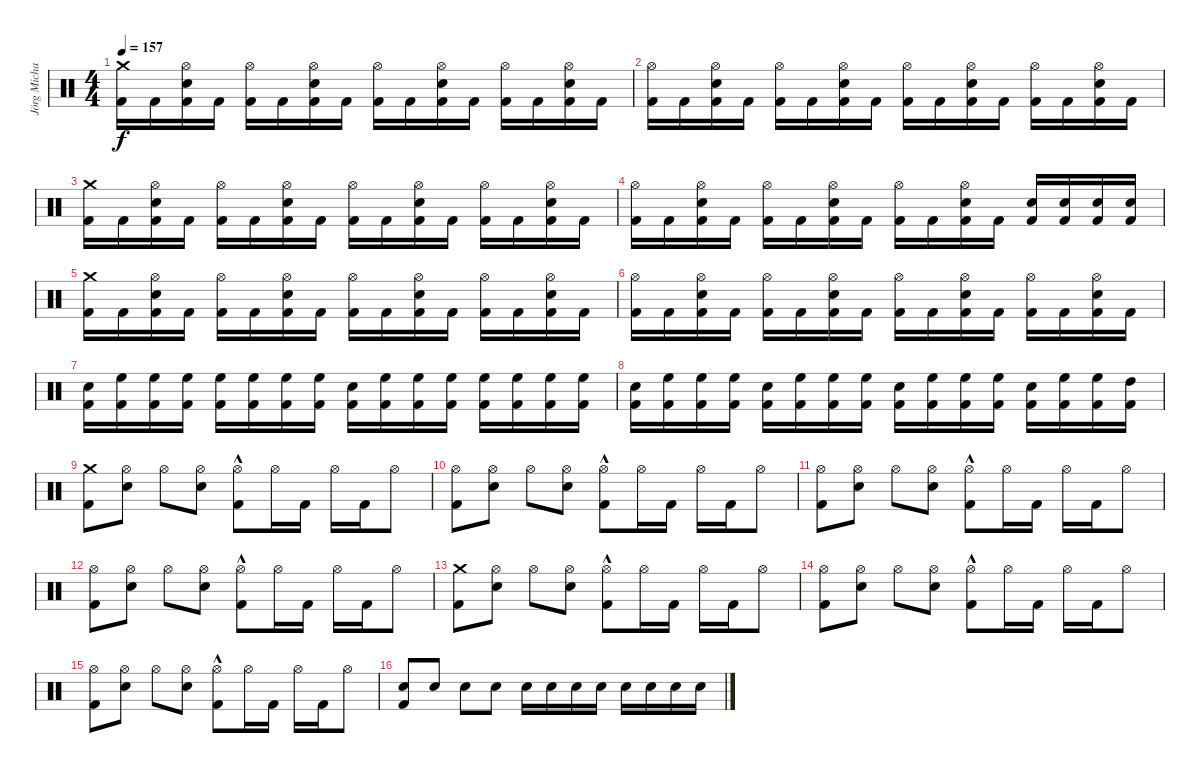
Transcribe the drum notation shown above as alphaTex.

\track ("Jörg Michael" "Jörg Micha") {instrument percussion}
\staff {score}
\articulation defaults
\ts (4 4)
\tempo 157
\clef neutral
\ks c
("Crash medium (hit)" "Kick (hit) 2").16{dy f} "Kick (hit) 2".16 ("Snare (hit) 2" "Hi-Hat (open)" "Kick (hit) 2").16 "Kick (hit) 2".16 ("Hi-Hat (open)" "Kick (hit) 2").16 "Kick (hit) 2".16 ("Snare (hit) 2" "Hi-Hat (open)" "Kick (hit) 2").16 "Kick (hit) 2".16 ("Hi-Hat (open)" "Kick (hit) 2").16 "Kick (hit) 2".16 ("Snare (hit) 2" "Hi-Hat (open)" "Kick (hit) 2").16 "Kick (hit) 2".16 ("Hi-Hat (open)" "Kick (hit) 2").16 "Kick (hit) 2".16 ("Snare (hit) 2" "Hi-Hat (open)" "Kick (hit) 2").16 "Kick (hit) 2".16 |
("Hi-Hat (open)" "Kick (hit) 2").16 "Kick (hit) 2".16 ("Snare (hit) 2" "Hi-Hat (open)" "Kick (hit) 2").16 "Kick (hit) 2".16 ("Hi-Hat (open)" "Kick (hit) 2").16 "Kick (hit) 2".16 ("Snare (hit) 2" "Hi-Hat (open)" "Kick (hit) 2").16 "Kick (hit) 2".16 ("Hi-Hat (open)" "Kick (hit) 2").16 "Kick (hit) 2".16 ("Snare (hit) 2" "Hi-Hat (open)" "Kick (hit) 2").16 "Kick (hit) 2".16 ("Hi-Hat (open)" "Kick (hit) 2").16 "Kick (hit) 2".16 ("Snare (hit) 2" "Hi-Hat (open)" "Kick (hit) 2").16 "Kick (hit) 2".16 |
("Crash medium (hit)" "Kick (hit) 2").16 "Kick (hit) 2".16 ("Snare (hit) 2" "Hi-Hat (open)" "Kick (hit) 2").16 "Kick (hit) 2".16 ("Hi-Hat (open)" "Kick (hit) 2").16 "Kick (hit) 2".16 ("Snare (hit) 2" "Hi-Hat (open)" "Kick (hit) 2").16 "Kick (hit) 2".16 ("Hi-Hat (open)" "Kick (hit) 2").16 "Kick (hit) 2".16 ("Snare (hit) 2" "Hi-Hat (open)" "Kick (hit) 2").16 "Kick (hit) 2".16 ("Hi-Hat (open)" "Kick (hit) 2").16 "Kick (hit) 2".16 ("Snare (hit) 2" "Hi-Hat (open)" "Kick (hit) 2").16 "Kick (hit) 2".16 |
("Hi-Hat (open)" "Kick (hit) 2").16 "Kick (hit) 2".16 ("Snare (hit) 2" "Hi-Hat (open)" "Kick (hit) 2").16 "Kick (hit) 2".16 ("Hi-Hat (open)" "Kick (hit) 2").16 "Kick (hit) 2".16 ("Snare (hit) 2" "Hi-Hat (open)" "Kick (hit) 2").16 "Kick (hit) 2".16 ("Hi-Hat (open)" "Kick (hit) 2").16 "Kick (hit) 2".16 ("Snare (hit) 2" "Hi-Hat (open)" "Kick (hit) 2").16 "Kick (hit) 2".16 ("Snare (hit) 2" "Kick (hit) 2").16 ("Snare (hit) 2" "Kick (hit) 2").16 ("Snare (hit) 2" "Kick (hit) 2").16 ("Snare (hit) 2" "Kick (hit) 2").16 |
("Crash medium (hit)" "Kick (hit) 2").16 "Kick (hit) 2".16 ("Snare (hit) 2" "Hi-Hat (open)" "Kick (hit) 2").16 "Kick (hit) 2".16 ("Hi-Hat (open)" "Kick (hit) 2").16 "Kick (hit) 2".16 ("Snare (hit) 2" "Hi-Hat (open)" "Kick (hit) 2").16 "Kick (hit) 2".16 ("Hi-Hat (open)" "Kick (hit) 2").16 "Kick (hit) 2".16 ("Snare (hit) 2" "Hi-Hat (open)" "Kick (hit) 2").16 "Kick (hit) 2".16 ("Hi-Hat (open)" "Kick (hit) 2").16 "Kick (hit) 2".16 ("Snare (hit) 2" "Hi-Hat (open)" "Kick (hit) 2").16 "Kick (hit) 2".16 |
("Hi-Hat (open)" "Kick (hit) 2").16 "Kick (hit) 2".16 ("Snare (hit) 2" "Hi-Hat (open)" "Kick (hit) 2").16 "Kick (hit) 2".16 ("Hi-Hat (open)" "Kick (hit) 2").16 "Kick (hit) 2".16 ("Snare (hit) 2" "Hi-Hat (open)" "Kick (hit) 2").16 "Kick (hit) 2".16 ("Hi-Hat (open)" "Kick (hit) 2").16 "Kick (hit) 2".16 ("Snare (hit) 2" "Hi-Hat (open)" "Kick (hit) 2").16 "Kick (hit) 2".16 ("Hi-Hat (open)" "Kick (hit) 2").16 "Kick (hit) 2".16 ("Snare (hit) 2" "Hi-Hat (open)" "Kick (hit) 2").16 "Kick (hit) 2".16 |
("Snare (hit) 2" "Kick (hit) 2").16 ("High Floor Tom (hit)" "Kick (hit) 2").16 ("High Floor Tom (hit)" "Kick (hit) 2").16 ("High Floor Tom (hit)" "Kick (hit) 2").16 ("High Floor Tom (hit)" "Kick (hit) 2").16 ("High Floor Tom (hit)" "Kick (hit) 2").16 ("High Floor Tom (hit)" "Kick (hit) 2").16 ("High Floor Tom (hit)" "Kick (hit) 2").16 ("Snare (hit) 2" "Kick (hit) 2").16 ("High Floor Tom (hit)" "Kick (hit) 2").16 ("High Floor Tom (hit)" "Kick (hit) 2").16 ("High Floor Tom (hit)" "Kick (hit) 2").16 ("High Floor Tom (hit)" "Kick (hit) 2").16 ("High Floor Tom (hit)" "Kick (hit) 2").16 ("High Floor Tom (hit)" "Kick (hit) 2").16 ("High Floor Tom (hit)" "Kick (hit) 2").16 |
("Snare (hit) 2" "Kick (hit) 2").16 ("High Floor Tom (hit)" "Kick (hit) 2").16 ("High Floor Tom (hit)" "Kick (hit) 2").16 ("High Floor Tom (hit)" "Kick (hit) 2").16 ("Snare (hit) 2" "Kick (hit) 2").16 ("High Floor Tom (hit)" "Kick (hit) 2").16 ("High Floor Tom (hit)" "Kick (hit) 2").16 ("High Floor Tom (hit)" "Kick (hit) 2").16 ("Snare (hit) 2" "Kick (hit) 2").16 ("High Floor Tom (hit)" "Kick (hit) 2").16 ("High Floor Tom (hit)" "Kick (hit) 2").16 ("High Floor Tom (hit)" "Kick (hit) 2").16 ("Snare (hit) 2" "Kick (hit) 2").16 ("High Floor Tom (hit)" "Kick (hit) 2").16 ("High Floor Tom (hit)" "Kick (hit) 2").16 ("High Tom (hit)" "Kick (hit) 2").16 |
("Kick (hit) 2" "Crash medium (hit)").8 ("Snare (hit) 2" "Hi-Hat (open)").8 "Hi-Hat (open)".8 ("Snare (hit) 2" "Hi-Hat (open)").8 ("Kick (hit) 2"{hac} "Hi-Hat (open)").8 "Hi-Hat (open)".16 "Kick (hit) 2".16 "Hi-Hat (open)".16 "Kick (hit) 2".16 "Hi-Hat (open)".8 |
("Kick (hit) 2" "Hi-Hat (open)").8 ("Snare (hit) 2" "Hi-Hat (open)").8 "Hi-Hat (open)".8 ("Snare (hit) 2" "Hi-Hat (open)").8 ("Kick (hit) 2"{hac} "Hi-Hat (open)").8 "Hi-Hat (open)".16 "Kick (hit) 2".16 "Hi-Hat (open)".16 "Kick (hit) 2".16 "Hi-Hat (open)".8 |
("Kick (hit) 2" "Hi-Hat (open)").8 ("Snare (hit) 2" "Hi-Hat (open)").8 "Hi-Hat (open)".8 ("Snare (hit) 2" "Hi-Hat (open)").8 ("Kick (hit) 2"{hac} "Hi-Hat (open)").8 "Hi-Hat (open)".16 "Kick (hit) 2".16 "Hi-Hat (open)".16 "Kick (hit) 2".16 "Hi-Hat (open)".8 |
("Kick (hit) 2" "Hi-Hat (open)").8 ("Snare (hit) 2" "Hi-Hat (open)").8 "Hi-Hat (open)".8 ("Snare (hit) 2" "Hi-Hat (open)").8 ("Kick (hit) 2"{hac} "Hi-Hat (open)").8 "Hi-Hat (open)".16 "Kick (hit) 2".16 "Hi-Hat (open)".16 "Kick (hit) 2".16 "Hi-Hat (open)".8 |
("Kick (hit) 2" "Crash medium (hit)").8 ("Snare (hit) 2" "Hi-Hat (open)").8 "Hi-Hat (open)".8 ("Snare (hit) 2" "Hi-Hat (open)").8 ("Kick (hit) 2"{hac} "Hi-Hat (open)").8 "Hi-Hat (open)".16 "Kick (hit) 2".16 "Hi-Hat (open)".16 "Kick (hit) 2".16 "Hi-Hat (open)".8 |
("Kick (hit) 2" "Hi-Hat (open)").8 ("Snare (hit) 2" "Hi-Hat (open)").8 "Hi-Hat (open)".8 ("Snare (hit) 2" "Hi-Hat (open)").8 ("Kick (hit) 2"{hac} "Hi-Hat (open)").8 "Hi-Hat (open)".16 "Kick (hit) 2".16 "Hi-Hat (open)".16 "Kick (hit) 2".16 "Hi-Hat (open)".8 |
("Kick (hit) 2" "Hi-Hat (open)").8 ("Snare (hit) 2" "Hi-Hat (open)").8 "Hi-Hat (open)".8 ("Snare (hit) 2" "Hi-Hat (open)").8 ("Kick (hit) 2"{hac} "Hi-Hat (open)").8 "Hi-Hat (open)".16 "Kick (hit) 2".16 "Hi-Hat (open)".16 "Kick (hit) 2".16 "Hi-Hat (open)".8 |
("Snare (hit) 2" "Kick (hit) 2").8 "Snare (hit) 2".8 "Snare (hit) 2".8 "Snare (hit) 2".8 "Snare (hit) 2".16 "Snare (hit) 2".16 "Snare (hit) 2".16 "Snare (hit) 2".16 "Snare (hit) 2".16 "Snare (hit) 2".16 "Snare (hit) 2".16 "Snare (hit) 2".16
